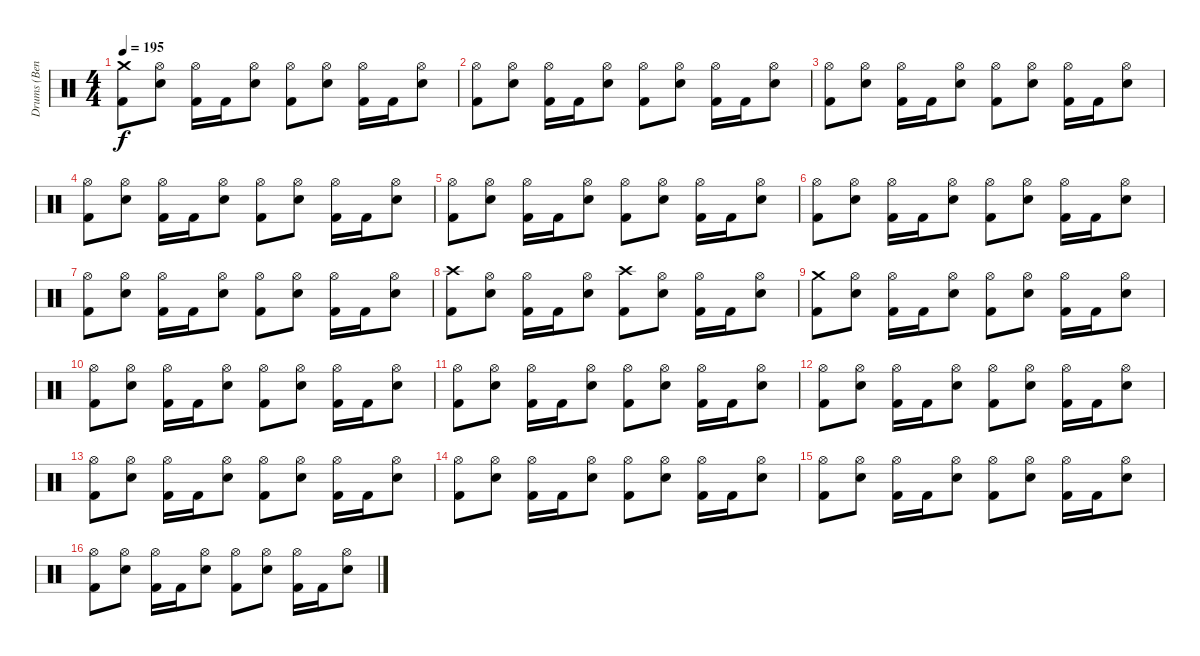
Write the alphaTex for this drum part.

\track ("Drums (Ben)" "Drums (Ben") {instrument percussion}
\staff {score}
\articulation defaults
\ts (4 4)
\tempo 195
\clef neutral
\ks c
("Crash medium (hit)" "Kick (hit) 2").8{dy f} ("Hi-Hat (open)" "Snare (hit) 2").8 ("Hi-Hat (open)" "Kick (hit) 2").16 "Kick (hit) 2".16 ("Hi-Hat (open)" "Snare (hit) 2").8 ("Hi-Hat (open)" "Kick (hit) 2").8 ("Hi-Hat (open)" "Snare (hit) 2").8 ("Hi-Hat (open)" "Kick (hit) 2").16 "Kick (hit) 2".16 ("Hi-Hat (open)" "Snare (hit) 2").8 |
("Hi-Hat (open)" "Kick (hit) 2").8 ("Hi-Hat (open)" "Snare (hit) 2").8 ("Hi-Hat (open)" "Kick (hit) 2").16 "Kick (hit) 2".16 ("Hi-Hat (open)" "Snare (hit) 2").8 ("Hi-Hat (open)" "Kick (hit) 2").8 ("Hi-Hat (open)" "Snare (hit) 2").8 ("Hi-Hat (open)" "Kick (hit) 2").16 "Kick (hit) 2".16 ("Hi-Hat (open)" "Snare (hit) 2").8 |
("Hi-Hat (open)" "Kick (hit) 2").8 ("Hi-Hat (open)" "Snare (hit) 2").8 ("Hi-Hat (open)" "Kick (hit) 2").16 "Kick (hit) 2".16 ("Hi-Hat (open)" "Snare (hit) 2").8 ("Hi-Hat (open)" "Kick (hit) 2").8 ("Hi-Hat (open)" "Snare (hit) 2").8 ("Hi-Hat (open)" "Kick (hit) 2").16 "Kick (hit) 2".16 ("Hi-Hat (open)" "Snare (hit) 2").8 |
("Hi-Hat (open)" "Kick (hit) 2").8 ("Hi-Hat (open)" "Snare (hit) 2").8 ("Hi-Hat (open)" "Kick (hit) 2").16 "Kick (hit) 2".16 ("Hi-Hat (open)" "Snare (hit) 2").8 ("Hi-Hat (open)" "Kick (hit) 2").8 ("Hi-Hat (open)" "Snare (hit) 2").8 ("Hi-Hat (open)" "Kick (hit) 2").16 "Kick (hit) 2".16 ("Hi-Hat (open)" "Snare (hit) 2").8 |
("Hi-Hat (open)" "Kick (hit) 2").8 ("Hi-Hat (open)" "Snare (hit) 2").8 ("Hi-Hat (open)" "Kick (hit) 2").16 "Kick (hit) 2".16 ("Hi-Hat (open)" "Snare (hit) 2").8 ("Hi-Hat (open)" "Kick (hit) 2").8 ("Hi-Hat (open)" "Snare (hit) 2").8 ("Hi-Hat (open)" "Kick (hit) 2").16 "Kick (hit) 2".16 ("Hi-Hat (open)" "Snare (hit) 2").8 |
("Hi-Hat (open)" "Kick (hit) 2").8 ("Hi-Hat (open)" "Snare (hit) 2").8 ("Hi-Hat (open)" "Kick (hit) 2").16 "Kick (hit) 2".16 ("Hi-Hat (open)" "Snare (hit) 2").8 ("Hi-Hat (open)" "Kick (hit) 2").8 ("Hi-Hat (open)" "Snare (hit) 2").8 ("Hi-Hat (open)" "Kick (hit) 2").16 "Kick (hit) 2".16 ("Hi-Hat (open)" "Snare (hit) 2").8 |
("Hi-Hat (open)" "Kick (hit) 2").8 ("Hi-Hat (open)" "Snare (hit) 2").8 ("Hi-Hat (open)" "Kick (hit) 2").16 "Kick (hit) 2".16 ("Hi-Hat (open)" "Snare (hit) 2").8 ("Hi-Hat (open)" "Kick (hit) 2").8 ("Hi-Hat (open)" "Snare (hit) 2").8 ("Hi-Hat (open)" "Kick (hit) 2").16 "Kick (hit) 2".16 ("Hi-Hat (open)" "Snare (hit) 2").8 |
("Crash high (hit)" "Kick (hit) 2").8 ("Hi-Hat (open)" "Snare (hit) 2").8 ("Hi-Hat (open)" "Kick (hit) 2").16 "Kick (hit) 2".16 ("Hi-Hat (open)" "Snare (hit) 2").8 ("Crash high (hit)" "Kick (hit) 2").8 ("Hi-Hat (open)" "Snare (hit) 2").8 ("Hi-Hat (open)" "Kick (hit) 2").16 "Kick (hit) 2".16 ("Hi-Hat (open)" "Snare (hit) 2").8 |
("Crash medium (hit)" "Kick (hit) 2").8 ("Hi-Hat (open)" "Snare (hit) 2").8 ("Hi-Hat (open)" "Kick (hit) 2").16 "Kick (hit) 2".16 ("Hi-Hat (open)" "Snare (hit) 2").8 ("Hi-Hat (open)" "Kick (hit) 2").8 ("Hi-Hat (open)" "Snare (hit) 2").8 ("Hi-Hat (open)" "Kick (hit) 2").16 "Kick (hit) 2".16 ("Hi-Hat (open)" "Snare (hit) 2").8 |
("Hi-Hat (open)" "Kick (hit) 2").8 ("Hi-Hat (open)" "Snare (hit) 2").8 ("Hi-Hat (open)" "Kick (hit) 2").16 "Kick (hit) 2".16 ("Hi-Hat (open)" "Snare (hit) 2").8 ("Hi-Hat (open)" "Kick (hit) 2").8 ("Hi-Hat (open)" "Snare (hit) 2").8 ("Hi-Hat (open)" "Kick (hit) 2").16 "Kick (hit) 2".16 ("Hi-Hat (open)" "Snare (hit) 2").8 |
("Hi-Hat (open)" "Kick (hit) 2").8 ("Hi-Hat (open)" "Snare (hit) 2").8 ("Hi-Hat (open)" "Kick (hit) 2").16 "Kick (hit) 2".16 ("Hi-Hat (open)" "Snare (hit) 2").8 ("Hi-Hat (open)" "Kick (hit) 2").8 ("Hi-Hat (open)" "Snare (hit) 2").8 ("Hi-Hat (open)" "Kick (hit) 2").16 "Kick (hit) 2".16 ("Hi-Hat (open)" "Snare (hit) 2").8 |
("Hi-Hat (open)" "Kick (hit) 2").8 ("Hi-Hat (open)" "Snare (hit) 2").8 ("Hi-Hat (open)" "Kick (hit) 2").16 "Kick (hit) 2".16 ("Hi-Hat (open)" "Snare (hit) 2").8 ("Hi-Hat (open)" "Kick (hit) 2").8 ("Hi-Hat (open)" "Snare (hit) 2").8 ("Hi-Hat (open)" "Kick (hit) 2").16 "Kick (hit) 2".16 ("Hi-Hat (open)" "Snare (hit) 2").8 |
("Hi-Hat (open)" "Kick (hit) 2").8 ("Hi-Hat (open)" "Snare (hit) 2").8 ("Hi-Hat (open)" "Kick (hit) 2").16 "Kick (hit) 2".16 ("Hi-Hat (open)" "Snare (hit) 2").8 ("Hi-Hat (open)" "Kick (hit) 2").8 ("Hi-Hat (open)" "Snare (hit) 2").8 ("Hi-Hat (open)" "Kick (hit) 2").16 "Kick (hit) 2".16 ("Hi-Hat (open)" "Snare (hit) 2").8 |
("Hi-Hat (open)" "Kick (hit) 2").8 ("Hi-Hat (open)" "Snare (hit) 2").8 ("Hi-Hat (open)" "Kick (hit) 2").16 "Kick (hit) 2".16 ("Hi-Hat (open)" "Snare (hit) 2").8 ("Hi-Hat (open)" "Kick (hit) 2").8 ("Hi-Hat (open)" "Snare (hit) 2").8 ("Hi-Hat (open)" "Kick (hit) 2").16 "Kick (hit) 2".16 ("Hi-Hat (open)" "Snare (hit) 2").8 |
("Hi-Hat (open)" "Kick (hit) 2").8 ("Hi-Hat (open)" "Snare (hit) 2").8 ("Hi-Hat (open)" "Kick (hit) 2").16 "Kick (hit) 2".16 ("Hi-Hat (open)" "Snare (hit) 2").8 ("Hi-Hat (open)" "Kick (hit) 2").8 ("Hi-Hat (open)" "Snare (hit) 2").8 ("Hi-Hat (open)" "Kick (hit) 2").16 "Kick (hit) 2".16 ("Hi-Hat (open)" "Snare (hit) 2").8 |
("Hi-Hat (open)" "Kick (hit) 2").8 ("Hi-Hat (open)" "Snare (hit) 2").8 ("Hi-Hat (open)" "Kick (hit) 2").16 "Kick (hit) 2".16 ("Hi-Hat (open)" "Snare (hit) 2").8 ("Hi-Hat (open)" "Kick (hit) 2").8 ("Hi-Hat (open)" "Snare (hit) 2").8 ("Hi-Hat (open)" "Kick (hit) 2").16 "Kick (hit) 2".16 ("Hi-Hat (open)" "Snare (hit) 2").8
